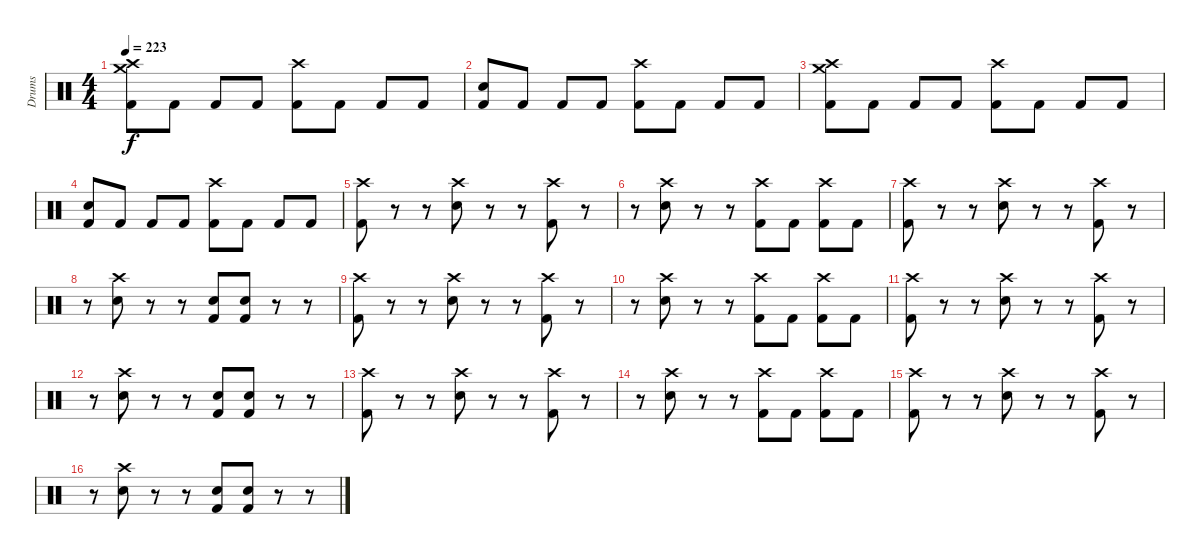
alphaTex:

\track ("Drums" "Drums") {instrument percussion bank 177}
\staff {score}
\articulation defaults
\ts (4 4)
\tempo 223
\clef neutral
\ks c
("Crash high (hit)" "Crash medium (hit)" "Kick (hit) 2").8{dy f} "Kick (hit) 2".8 "Kick (hit) 2".8 "Kick (hit) 2".8 ("Crash high (hit)" "Kick (hit) 2").8 "Kick (hit) 2".8 "Kick (hit) 2".8 "Kick (hit) 2".8 |
("Electric Snare (hit)" "Kick (hit) 2").8 "Kick (hit) 2".8 "Kick (hit) 2".8 "Kick (hit) 2".8 ("Crash high (hit)" "Kick (hit) 2").8 "Kick (hit) 2".8 "Kick (hit) 2".8 "Kick (hit) 2".8 |
("Crash high (hit)" "Crash medium (hit)" "Kick (hit) 2").8 "Kick (hit) 2".8 "Kick (hit) 2".8 "Kick (hit) 2".8 ("Crash high (hit)" "Kick (hit) 2").8 "Kick (hit) 2".8 "Kick (hit) 2".8 "Kick (hit) 2".8 |
("Electric Snare (hit)" "Kick (hit) 2").8 "Kick (hit) 2".8 "Kick (hit) 2".8 "Kick (hit) 2".8 ("Crash high (hit)" "Kick (hit) 2").8 "Kick (hit) 2".8 "Kick (hit) 2".8 "Kick (hit) 2".8 |
("Crash high (hit)" "Kick (hit) 2").8 r.8 r.8 ("Crash high (hit)" "Electric Snare (hit)").8 r.8 r.8 ("Crash high (hit)" "Kick (hit) 2").8 r.8 |
r.8 ("Crash high (hit)" "Electric Snare (hit)").8 r.8 r.8 ("Crash high (hit)" "Kick (hit) 2").8 "Kick (hit) 2".8 ("Crash high (hit)" "Kick (hit) 2").8 "Kick (hit) 2".8 |
("Crash high (hit)" "Kick (hit) 2").8 r.8 r.8 ("Crash high (hit)" "Electric Snare (hit)").8 r.8 r.8 ("Crash high (hit)" "Kick (hit) 2").8 r.8 |
r.8 ("Crash high (hit)" "Electric Snare (hit)").8 r.8 r.8 ("Electric Snare (hit)" "Kick (hit) 2").8 ("Electric Snare (hit)" "Kick (hit) 2").8 r.8 r.8 |
("Crash high (hit)" "Kick (hit) 2").8 r.8 r.8 ("Crash high (hit)" "Electric Snare (hit)").8 r.8 r.8 ("Crash high (hit)" "Kick (hit) 2").8 r.8 |
r.8 ("Crash high (hit)" "Electric Snare (hit)").8 r.8 r.8 ("Crash high (hit)" "Kick (hit) 2").8 "Kick (hit) 2".8 ("Crash high (hit)" "Kick (hit) 2").8 "Kick (hit) 2".8 |
("Crash high (hit)" "Kick (hit) 2").8 r.8 r.8 ("Crash high (hit)" "Electric Snare (hit)").8 r.8 r.8 ("Crash high (hit)" "Kick (hit) 2").8 r.8 |
r.8 ("Crash high (hit)" "Electric Snare (hit)").8 r.8 r.8 ("Electric Snare (hit)" "Kick (hit) 2").8 ("Electric Snare (hit)" "Kick (hit) 2").8 r.8 r.8 |
("Crash high (hit)" "Kick (hit) 2").8 r.8 r.8 ("Crash high (hit)" "Electric Snare (hit)").8 r.8 r.8 ("Crash high (hit)" "Kick (hit) 2").8 r.8 |
r.8 ("Crash high (hit)" "Electric Snare (hit)").8 r.8 r.8 ("Crash high (hit)" "Kick (hit) 2").8 "Kick (hit) 2".8 ("Crash high (hit)" "Kick (hit) 2").8 "Kick (hit) 2".8 |
("Crash high (hit)" "Kick (hit) 2").8 r.8 r.8 ("Crash high (hit)" "Electric Snare (hit)").8 r.8 r.8 ("Crash high (hit)" "Kick (hit) 2").8 r.8 |
r.8 ("Crash high (hit)" "Electric Snare (hit)").8 r.8 r.8 ("Electric Snare (hit)" "Kick (hit) 2").8 ("Electric Snare (hit)" "Kick (hit) 2").8 r.8 r.8
